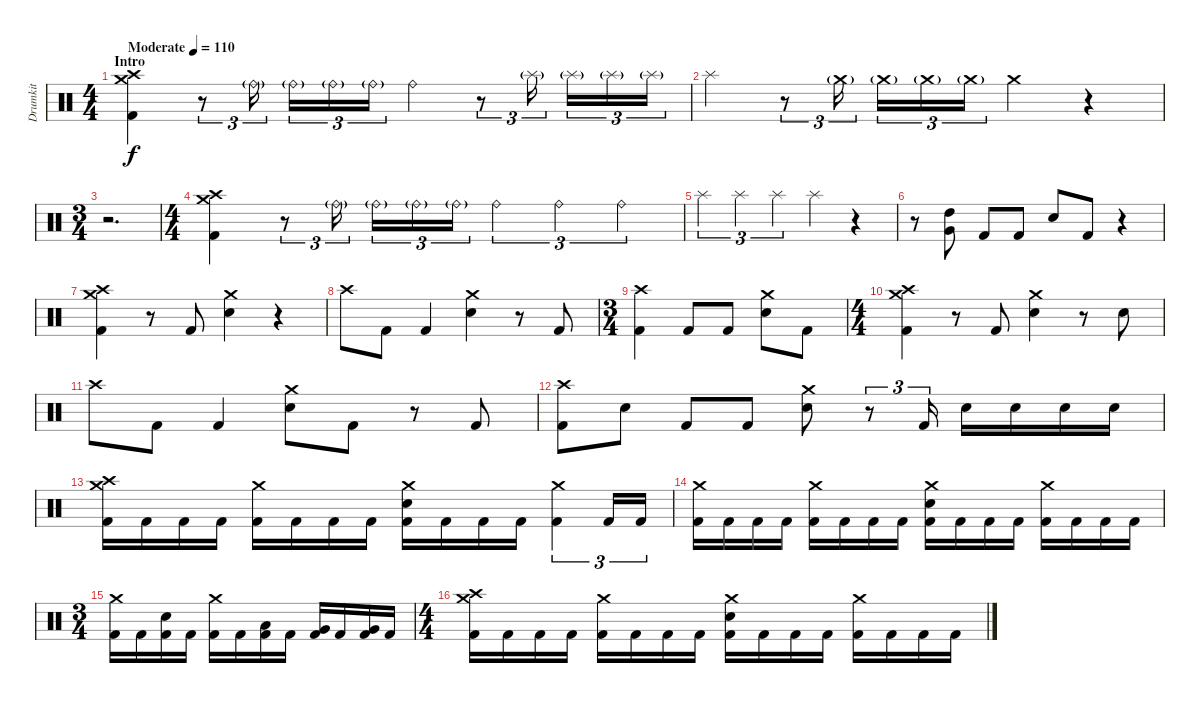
\track ("Drumkit" "Drumkit") {instrument percussion}
\staff {score}
\articulation defaults
\ts (4 4)
\section ("" "Intro")
\tempo (110 "Moderate")
\clef neutral
\ks c
("Crash high (hit)" "Crash medium (hit)" "Kick (hit) 2").4{dy f} r.8{tu (3 2)} "Ride (bell)"{g}.16{tu (3 2)} "Ride (bell)"{g}.16{tu (3 2)} "Ride (bell)"{g}.16{tu (3 2)} "Ride (bell)"{g}.16{tu (3 2)} "Ride (bell)".4 r.8{tu (3 2)} "Splash (hit)"{g}.16{tu (3 2)} "Splash (hit)"{g}.16{tu (3 2)} "Splash (hit)"{g}.16{tu (3 2)} "Splash (hit)"{g}.16{tu (3 2)} |
"Splash (hit)".4 r.8{tu (3 2)} "Crash medium (hit)"{g}.16{tu (3 2)} "Crash medium (hit)"{g}.16{tu (3 2)} "Crash medium (hit)"{g}.16{tu (3 2)} "Crash medium (hit)"{g}.16{tu (3 2)} "Crash medium (hit)".4 r.4 |
\ts (3 4)
r.2{d} |
\ts (4 4)
("Crash high (hit)" "Crash medium (hit)" "Kick (hit) 2").4 r.8{tu (3 2)} "Ride (bell)"{g}.16{tu (3 2)} "Ride (bell)"{g}.16{tu (3 2)} "Ride (bell)"{g}.16{tu (3 2)} "Ride (bell)"{g}.16{tu (3 2)} "Ride (bell)".4{tu (3 2)} "Ride (bell)".4{tu (3 2)} "Ride (bell)".4{tu (3 2)} |
"Splash (hit)".4{tu (3 2)} "Splash (hit)".4{tu (3 2)} "Splash (hit)".4{tu (3 2)} "Splash (hit)".4 r.4 |
r.8 ("High Tom (hit)" "Very Low Tom (hit)").8 "Kick (hit) 2".8 "Kick (hit) 2".8 "Snare (hit) 2".8 "Kick (hit) 2".8 r.4 |
("Crash high (hit)" "Crash medium (hit)" "Kick (hit) 2").4 r.8 "Kick (hit) 2".8 ("Crash medium (hit)" "Snare (hit) 2").4 r.4 |
"Crash high (hit)".8 "Kick (hit) 2".8 "Kick (hit) 2".4 ("Crash medium (hit)" "Snare (hit) 2").4 r.8 "Kick (hit) 2".8 |
\ts (3 4)
("Crash high (hit)" "Kick (hit) 2").4 "Kick (hit) 2".8 "Kick (hit) 2".8 ("Crash medium (hit)" "Snare (hit) 2").8 "Kick (hit) 2".8 |
\ts (4 4)
("Crash high (hit)" "Crash medium (hit)" "Kick (hit) 2").4 r.8 "Kick (hit) 2".8 ("Crash medium (hit)" "Snare (hit) 2").4 r.8 "Snare (hit) 2".8 |
"Crash high (hit)".8 "Kick (hit) 2".8 "Kick (hit) 2".4 ("Crash medium (hit)" "Snare (hit) 2").8 "Kick (hit) 2".8 r.8 "Kick (hit) 2".8 |
("Crash high (hit)" "Kick (hit) 2").8 "Snare (hit) 2".8 "Kick (hit) 2".8 "Kick (hit) 2".8 ("Crash medium (hit)" "Snare (hit) 2").8 r.8{tu (3 2)} "Kick (hit) 2".16{tu (3 2)} "Snare (hit) 2".16 "Snare (hit) 2".16 "Snare (hit) 2".16 "Snare (hit) 2".16 |
("Crash high (hit)" "Crash medium (hit)" "Kick (hit) 2").16 "Kick (hit) 2".16 "Kick (hit) 2".16 "Kick (hit) 2".16 ("Crash medium (hit)" "Kick (hit) 2").16 "Kick (hit) 2".16 "Kick (hit) 2".16 "Kick (hit) 2".16 ("Crash medium (hit)" "Snare (hit) 2" "Kick (hit) 2").16 "Kick (hit) 2".16 "Kick (hit) 2".16 "Kick (hit) 2".16 ("Crash medium (hit)" "Kick (hit) 2").4{tu (3 2)} "Kick (hit) 2".16{tu (3 2)} "Kick (hit) 2".16{tu (3 2)} |
("Crash medium (hit)" "Kick (hit) 2").16 "Kick (hit) 2".16 "Kick (hit) 2".16 "Kick (hit) 2".16 ("Crash medium (hit)" "Kick (hit) 2").16 "Kick (hit) 2".16 "Kick (hit) 2".16 "Kick (hit) 2".16 ("Crash medium (hit)" "Snare (hit) 2" "Kick (hit) 2").16 "Kick (hit) 2".16 "Kick (hit) 2".16 "Kick (hit) 2".16 ("Crash medium (hit)" "Kick (hit) 2").16 "Kick (hit) 2".16 "Kick (hit) 2".16 "Kick (hit) 2".16 |
\ts (3 4)
("Crash medium (hit)" "Kick (hit) 2").16 "Kick (hit) 2".16 ("Snare (hit) 2" "Kick (hit) 2").16 "Kick (hit) 2".16 ("Crash medium (hit)" "Kick (hit) 2").16 "Kick (hit) 2".16 ("Low Tom (hit)" "Kick (hit) 2").16 "Kick (hit) 2".16 ("Very Low Tom (hit)" "Kick (hit) 2").16 "Kick (hit) 2".16 ("Very Low Tom (hit)" "Kick (hit) 2").16 "Kick (hit) 2".16 |
\ts (4 4)
("Crash medium (hit)" "Crash high (hit)" "Kick (hit) 2").16 "Kick (hit) 2".16 "Kick (hit) 2".16 "Kick (hit) 2".16 ("Crash medium (hit)" "Kick (hit) 2").16 "Kick (hit) 2".16 "Kick (hit) 2".16 "Kick (hit) 2".16 ("Crash medium (hit)" "Snare (hit) 2" "Kick (hit) 2").16 "Kick (hit) 2".16 "Kick (hit) 2".16 "Kick (hit) 2".16 ("Crash medium (hit)" "Kick (hit) 2").16 "Kick (hit) 2".16 "Kick (hit) 2".16 "Kick (hit) 2".16
